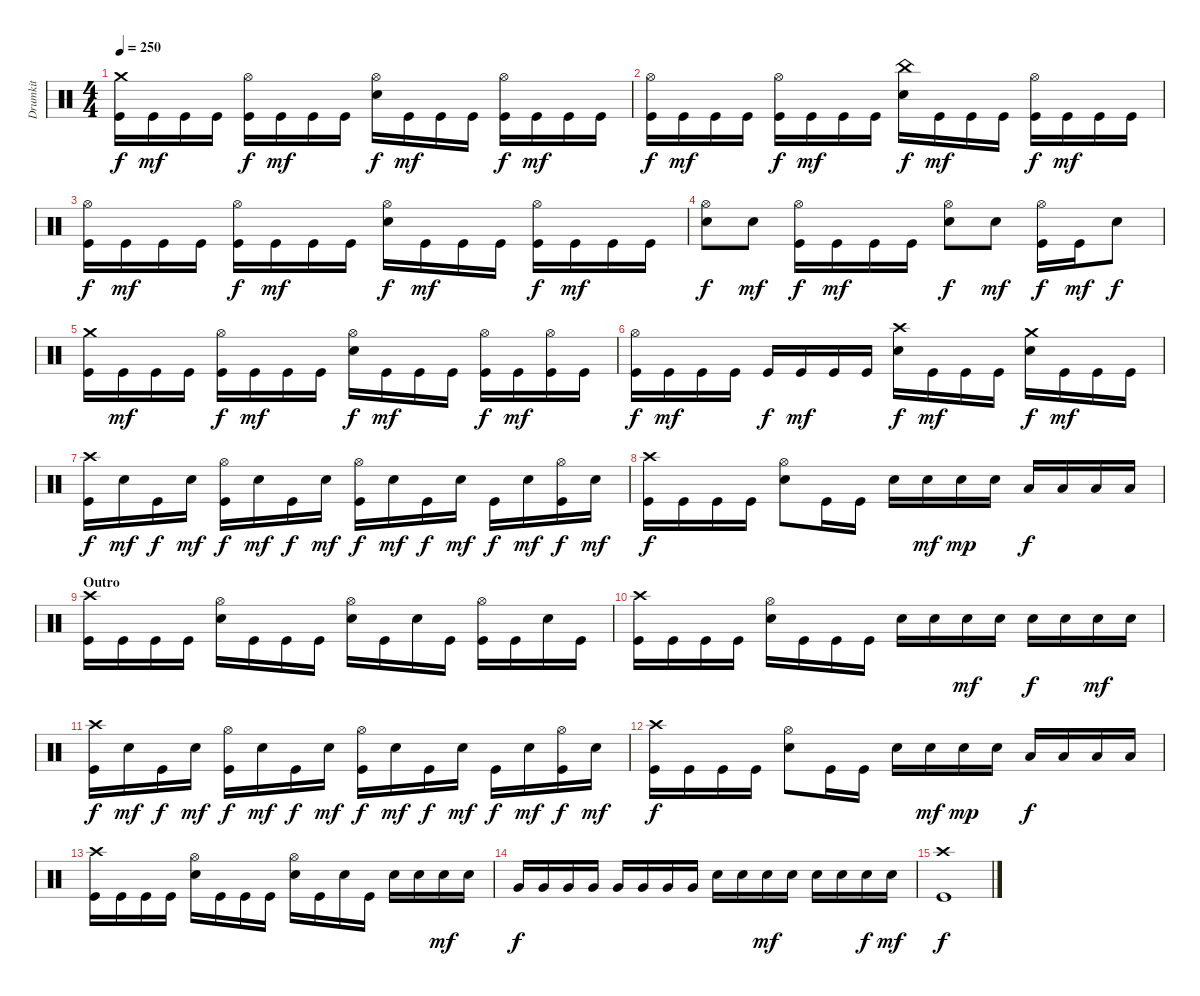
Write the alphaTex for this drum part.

\track ("Drumkit" "Drumkit") {instrument percussion}
\staff {score}
\articulation defaults
\ts (4 4)
\tempo 250
\clef neutral
\ks c
("Kick (hit)" "Crash medium (hit)").16{dy f} "Kick (hit)".16{dy mf} "Kick (hit)".16 "Kick (hit)".16 ("Kick (hit)" "Hi-Hat (open)").16{dy f} "Kick (hit)".16{dy mf} "Kick (hit)".16 "Kick (hit)".16 ("Snare (hit) 2" "Hi-Hat (open)").16{dy f} "Kick (hit)".16{dy mf} "Kick (hit)".16 "Kick (hit)".16 ("Kick (hit)" "Hi-Hat (open)").16{dy f} "Kick (hit)".16{dy mf} "Kick (hit)".16 "Kick (hit)".16 |
("Kick (hit)" "Hi-Hat (open)").16{dy f} "Kick (hit)".16{dy mf} "Kick (hit)".16 "Kick (hit)".16 ("Kick (hit)" "Hi-Hat (open)").16{dy f} "Kick (hit)".16{dy mf} "Kick (hit)".16 "Kick (hit)".16 ("Snare (hit) 2" "China (hit)").16{dy f} "Kick (hit)".16{dy mf} "Kick (hit)".16 "Kick (hit)".16 ("Kick (hit)" "Hi-Hat (open)").16{dy f} "Kick (hit)".16{dy mf} "Kick (hit)".16 "Kick (hit)".16 |
("Kick (hit)" "Hi-Hat (open)").16{dy f} "Kick (hit)".16{dy mf} "Kick (hit)".16 "Kick (hit)".16 ("Kick (hit)" "Hi-Hat (open)").16{dy f} "Kick (hit)".16{dy mf} "Kick (hit)".16 "Kick (hit)".16 ("Snare (hit) 2" "Hi-Hat (open)").16{dy f} "Kick (hit)".16{dy mf} "Kick (hit)".16 "Kick (hit)".16 ("Kick (hit)" "Hi-Hat (open)").16{dy f} "Kick (hit)".16{dy mf} "Kick (hit)".16 "Kick (hit)".16 |
("Snare (hit) 2" "Hi-Hat (open)").8{dy f} "Snare (hit) 2".8{dy mf} ("Kick (hit)" "Hi-Hat (open)").16{dy f} "Kick (hit)".16{dy mf} "Kick (hit)".16 "Kick (hit)".16 ("Snare (hit) 2" "Hi-Hat (open)").8{dy f} "Snare (hit) 2".8{dy mf} ("Kick (hit)" "Hi-Hat (open)").16{dy f} "Kick (hit)".16{dy mf} "Snare (hit) 2".8{dy f} |
("Kick (hit)" "Crash medium (hit)").16 "Kick (hit)".16{dy mf} "Kick (hit)".16 "Kick (hit)".16 ("Kick (hit)" "Hi-Hat (open)").16{dy f} "Kick (hit)".16{dy mf} "Kick (hit)".16 "Kick (hit)".16 ("Snare (hit) 2" "Hi-Hat (open)").16{dy f} "Kick (hit)".16{dy mf} "Kick (hit)".16 "Kick (hit)".16 ("Kick (hit)" "Hi-Hat (open)").16{dy f} "Kick (hit)".16{dy mf} ("Kick (hit)" "Hi-Hat (open)").16 "Kick (hit)".16 |
("Kick (hit)" "Hi-Hat (open)").16{dy f} "Kick (hit)".16{dy mf} "Kick (hit)".16 "Kick (hit)".16 "Kick (hit)".16{dy f} "Kick (hit)".16{dy mf} "Kick (hit)".16 "Kick (hit)".16 ("Snare (hit) 2" "Crash high (hit)").16{dy f} "Kick (hit)".16{dy mf} "Kick (hit)".16 "Kick (hit)".16 ("Crash medium (hit)" "Snare (hit) 2").16{dy f} "Kick (hit)".16{dy mf} "Kick (hit)".16 "Kick (hit)".16 |
("Kick (hit)" "Crash high (hit)").16{dy f} "Snare (hit) 2".16{dy mf} "Kick (hit)".16{dy f} "Snare (hit) 2".16{dy mf} ("Kick (hit)" "Hi-Hat (open)").16{dy f} "Snare (hit) 2".16{dy mf} "Kick (hit)".16{dy f} "Snare (hit) 2".16{dy mf} ("Kick (hit)" "Hi-Hat (open)").16{dy f} "Snare (hit) 2".16{dy mf} "Kick (hit)".16{dy f} "Snare (hit) 2".16{dy mf} "Kick (hit)".16{dy f} "Snare (hit) 2".16{dy mf} ("Kick (hit)" "Hi-Hat (open)").16{dy f} "Snare (hit) 2".16{dy mf} |
("Kick (hit)" "Crash high (hit)").16{dy f} "Kick (hit)".16 "Kick (hit)".16 "Kick (hit)".16 ("Snare (hit) 2" "Hi-Hat (open)").8 "Kick (hit)".16 "Kick (hit)".16 "Snare (hit) 2".16 "Snare (hit) 2".16{dy mf} "Snare (hit) 2".16{dy mp} "Snare (hit) 2".16 "Low Floor Tom (hit)".16{dy f} "Low Floor Tom (hit)".16 "Low Floor Tom (hit)".16 "Low Floor Tom (hit)".16 |
\section ("" "Outro")
("Kick (hit)" "Crash high (hit)").16 "Kick (hit)".16 "Kick (hit)".16 "Kick (hit)".16 ("Snare (hit) 2" "Hi-Hat (open)").16 "Kick (hit)".16 "Kick (hit)".16 "Kick (hit)".16 ("Snare (hit) 2" "Hi-Hat (open)").16 "Kick (hit)".16 "Snare (hit) 2".16 "Kick (hit)".16 ("Kick (hit)" "Hi-Hat (open)").16 "Kick (hit)".16 "Snare (hit) 2".16 "Kick (hit)".16 |
("Kick (hit)" "Crash high (hit)").16 "Kick (hit)".16 "Kick (hit)".16 "Kick (hit)".16 ("Snare (hit) 2" "Hi-Hat (open)").16 "Kick (hit)".16 "Kick (hit)".16 "Kick (hit)".16 "Snare (hit) 2".16 "Snare (hit) 2".16 "Snare (hit) 2".16{dy mf} "Snare (hit) 2".16 "Snare (hit) 2".16{dy f} "Snare (hit) 2".16 "Snare (hit) 2".16{dy mf} "Snare (hit) 2".16 |
("Kick (hit)" "Crash high (hit)").16{dy f} "Snare (hit) 2".16{dy mf} "Kick (hit)".16{dy f} "Snare (hit) 2".16{dy mf} ("Kick (hit)" "Hi-Hat (open)").16{dy f} "Snare (hit) 2".16{dy mf} "Kick (hit)".16{dy f} "Snare (hit) 2".16{dy mf} ("Kick (hit)" "Hi-Hat (open)").16{dy f} "Snare (hit) 2".16{dy mf} "Kick (hit)".16{dy f} "Snare (hit) 2".16{dy mf} "Kick (hit)".16{dy f} "Snare (hit) 2".16{dy mf} ("Kick (hit)" "Hi-Hat (open)").16{dy f} "Snare (hit) 2".16{dy mf} |
("Kick (hit)" "Crash high (hit)").16{dy f} "Kick (hit)".16 "Kick (hit)".16 "Kick (hit)".16 ("Snare (hit) 2" "Hi-Hat (open)").8 "Kick (hit)".16 "Kick (hit)".16 "Snare (hit) 2".16 "Snare (hit) 2".16{dy mf} "Snare (hit) 2".16{dy mp} "Snare (hit) 2".16 "Low Floor Tom (hit)".16{dy f} "Low Floor Tom (hit)".16 "Low Floor Tom (hit)".16 "Low Floor Tom (hit)".16 |
("Kick (hit)" "Crash high (hit)").16 "Kick (hit)".16 "Kick (hit)".16 "Kick (hit)".16 ("Snare (hit) 2" "Hi-Hat (open)").16 "Kick (hit)".16 "Kick (hit)".16 "Kick (hit)".16 ("Snare (hit) 2" "Hi-Hat (open)").16 "Kick (hit)".16 "Snare (hit) 2".16 "Kick (hit)".16 "Snare (hit) 2".16 "Snare (hit) 2".16 "Snare (hit) 2".16{dy mf} "Snare (hit) 2".16 |
"Very Low Tom (hit)".16{dy f} "Very Low Tom (hit)".16 "Very Low Tom (hit)".16 "Very Low Tom (hit)".16 "Very Low Tom (hit)".16 "Very Low Tom (hit)".16 "Very Low Tom (hit)".16 "Very Low Tom (hit)".16 "Snare (hit) 2".16 "Snare (hit) 2".16 "Snare (hit) 2".16{dy mf} "Snare (hit) 2".16 "Snare (hit) 2".16 "Snare (hit) 2".16 "Snare (hit) 2".16{dy f} "Snare (hit) 2".16{dy mf} |
("Kick (hit)" "Crash high (hit)").1{dy f}
